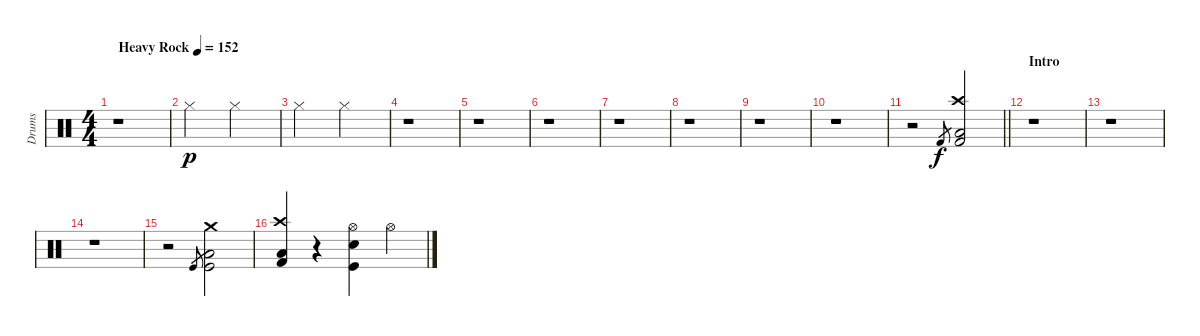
\track ("Drums" "Drums") {instrument percussion}
\staff {score}
\articulation defaults
\ts (4 4)
\tempo (152 "Heavy Rock")
\clef neutral
\ks c
r.1{dy p} |
"Hi-Hat (closed)".2 "Hi-Hat (closed)".2 |
"Hi-Hat (closed)".2 "Hi-Hat (closed)".2 |
r.1 |
r.1 |
r.1 |
r.1 |
r.1 |
r.1 |
r.1 |
\barLineRight lightlight
r.2 "Kick (hit) 2".8{gr dy f} ("Kick (hit) 2" "Crash high (hit)" "Low Floor Tom (hit)").2 |
\section ("" "Intro")
r.1 |
r.1 |
r.1 |
r.2 "Kick (hit)".8{gr} ("Kick (hit)" "Crash medium (hit)" "Low Floor Tom (hit)").2 |
("Kick (hit) 2" "Crash high (hit)" "Low Floor Tom (hit)").4 r.4 ("Kick (hit)" "Snare (hit) 2" "Hi-Hat (open)").4 "Hi-Hat (open)".4
